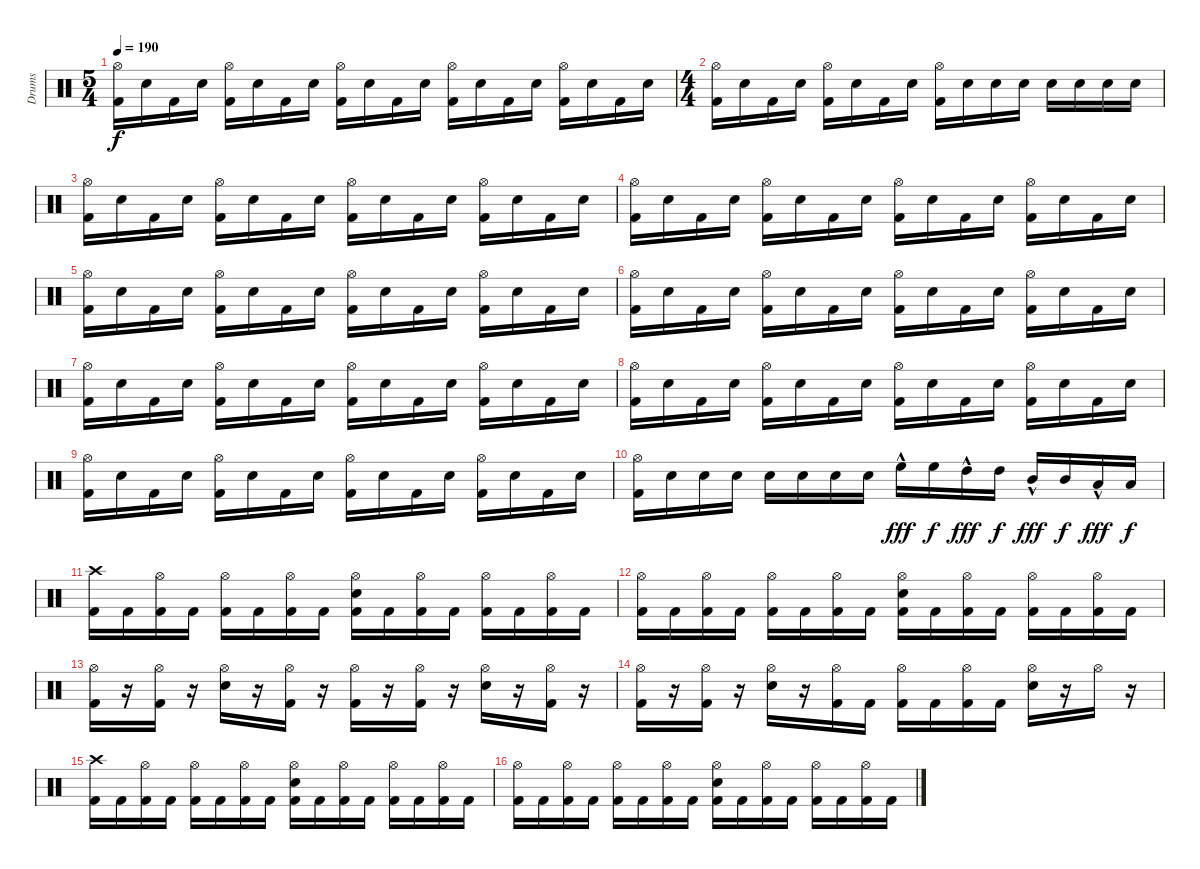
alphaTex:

\track ("Drums" "Drums") {instrument percussion}
\staff {score}
\articulation defaults
\ts (5 4)
\tempo 190
\clef neutral
\ks aminor
("Kick (hit) 2" "Hi-Hat (open)").16{dy f} "Electric Snare (hit)".16 "Kick (hit) 2".16 "Electric Snare (hit)".16 ("Kick (hit) 2" "Hi-Hat (open)").16 "Electric Snare (hit)".16 "Kick (hit) 2".16 "Electric Snare (hit)".16 ("Kick (hit) 2" "Hi-Hat (open)").16 "Electric Snare (hit)".16 "Kick (hit) 2".16 "Electric Snare (hit)".16 ("Kick (hit) 2" "Hi-Hat (open)").16 "Electric Snare (hit)".16 "Kick (hit) 2".16 "Electric Snare (hit)".16 ("Kick (hit) 2" "Hi-Hat (open)").16 "Electric Snare (hit)".16 "Kick (hit) 2".16 "Electric Snare (hit)".16 |
\ts (4 4)
("Kick (hit) 2" "Hi-Hat (open)").16 "Electric Snare (hit)".16 "Kick (hit) 2".16 "Electric Snare (hit)".16 ("Kick (hit) 2" "Hi-Hat (open)").16 "Electric Snare (hit)".16 "Kick (hit) 2".16 "Electric Snare (hit)".16 ("Kick (hit) 2" "Hi-Hat (open)").16 "Electric Snare (hit)".16 "Electric Snare (hit)".16 "Electric Snare (hit)".16 "Electric Snare (hit)".16 "Electric Snare (hit)".16 "Electric Snare (hit)".16 "Electric Snare (hit)".16 |
("Kick (hit) 2" "Hi-Hat (open)").16 "Electric Snare (hit)".16 "Kick (hit) 2".16 "Electric Snare (hit)".16 ("Kick (hit) 2" "Hi-Hat (open)").16 "Electric Snare (hit)".16 "Kick (hit) 2".16 "Electric Snare (hit)".16 ("Kick (hit) 2" "Hi-Hat (open)").16 "Electric Snare (hit)".16 "Kick (hit) 2".16 "Electric Snare (hit)".16 ("Kick (hit) 2" "Hi-Hat (open)").16 "Electric Snare (hit)".16 "Kick (hit) 2".16 "Electric Snare (hit)".16 |
("Kick (hit) 2" "Hi-Hat (open)").16 "Electric Snare (hit)".16 "Kick (hit) 2".16 "Electric Snare (hit)".16 ("Kick (hit) 2" "Hi-Hat (open)").16 "Electric Snare (hit)".16 "Kick (hit) 2".16 "Electric Snare (hit)".16 ("Kick (hit) 2" "Hi-Hat (open)").16 "Electric Snare (hit)".16 "Kick (hit) 2".16 "Electric Snare (hit)".16 ("Kick (hit) 2" "Hi-Hat (open)").16 "Electric Snare (hit)".16 "Kick (hit) 2".16 "Electric Snare (hit)".16 |
("Kick (hit) 2" "Hi-Hat (open)").16 "Electric Snare (hit)".16 "Kick (hit) 2".16 "Electric Snare (hit)".16 ("Kick (hit) 2" "Hi-Hat (open)").16 "Electric Snare (hit)".16 "Kick (hit) 2".16 "Electric Snare (hit)".16 ("Kick (hit) 2" "Hi-Hat (open)").16 "Electric Snare (hit)".16 "Kick (hit) 2".16 "Electric Snare (hit)".16 ("Kick (hit) 2" "Hi-Hat (open)").16 "Electric Snare (hit)".16 "Kick (hit) 2".16 "Electric Snare (hit)".16 |
("Kick (hit) 2" "Hi-Hat (open)").16 "Electric Snare (hit)".16 "Kick (hit) 2".16 "Electric Snare (hit)".16 ("Kick (hit) 2" "Hi-Hat (open)").16 "Electric Snare (hit)".16 "Kick (hit) 2".16 "Electric Snare (hit)".16 ("Kick (hit) 2" "Hi-Hat (open)").16 "Electric Snare (hit)".16 "Kick (hit) 2".16 "Electric Snare (hit)".16 ("Kick (hit) 2" "Hi-Hat (open)").16 "Electric Snare (hit)".16 "Kick (hit) 2".16 "Electric Snare (hit)".16 |
("Kick (hit) 2" "Hi-Hat (open)").16 "Electric Snare (hit)".16 "Kick (hit) 2".16 "Electric Snare (hit)".16 ("Kick (hit) 2" "Hi-Hat (open)").16 "Electric Snare (hit)".16 "Kick (hit) 2".16 "Electric Snare (hit)".16 ("Kick (hit) 2" "Hi-Hat (open)").16 "Electric Snare (hit)".16 "Kick (hit) 2".16 "Electric Snare (hit)".16 ("Kick (hit) 2" "Hi-Hat (open)").16 "Electric Snare (hit)".16 "Kick (hit) 2".16 "Electric Snare (hit)".16 |
("Kick (hit) 2" "Hi-Hat (open)").16 "Electric Snare (hit)".16 "Kick (hit) 2".16 "Electric Snare (hit)".16 ("Kick (hit) 2" "Hi-Hat (open)").16 "Electric Snare (hit)".16 "Kick (hit) 2".16 "Electric Snare (hit)".16 ("Kick (hit) 2" "Hi-Hat (open)").16 "Electric Snare (hit)".16 "Kick (hit) 2".16 "Electric Snare (hit)".16 ("Kick (hit) 2" "Hi-Hat (open)").16 "Electric Snare (hit)".16 "Kick (hit) 2".16 "Electric Snare (hit)".16 |
("Kick (hit) 2" "Hi-Hat (open)").16 "Electric Snare (hit)".16 "Kick (hit) 2".16 "Electric Snare (hit)".16 ("Kick (hit) 2" "Hi-Hat (open)").16 "Electric Snare (hit)".16 "Kick (hit) 2".16 "Electric Snare (hit)".16 ("Kick (hit) 2" "Hi-Hat (open)").16 "Electric Snare (hit)".16 "Kick (hit) 2".16 "Electric Snare (hit)".16 ("Kick (hit) 2" "Hi-Hat (open)").16 "Electric Snare (hit)".16 "Kick (hit) 2".16 "Electric Snare (hit)".16 |
("Kick (hit) 2" "Hi-Hat (open)").16 "Electric Snare (hit)".16 "Electric Snare (hit)".16 "Electric Snare (hit)".16 "Electric Snare (hit)".16 "Electric Snare (hit)".16 "Electric Snare (hit)".16 "Electric Snare (hit)".16 "High Floor Tom (hit)"{hac}.16{dy fff} "High Floor Tom (hit)".16{dy f} "High Tom (hit)"{hac}.16{dy fff} "High Tom (hit)".16{dy f} "Mid Tom (hit)"{hac}.16{dy fff} "Mid Tom (hit)".16{dy f} "Low Tom (hit)"{hac}.16{dy fff} "Low Tom (hit)".16{dy f} |
("Kick (hit) 2" "Crash high (hit)").16 "Kick (hit) 2".16 ("Kick (hit) 2" "Hi-Hat (open)").16 "Kick (hit) 2".16 ("Kick (hit) 2" "Hi-Hat (open)").16 "Kick (hit) 2".16 ("Kick (hit) 2" "Hi-Hat (open)").16 "Kick (hit) 2".16 ("Kick (hit) 2" "Electric Snare (hit)" "Hi-Hat (open)").16 "Kick (hit) 2".16 ("Kick (hit) 2" "Hi-Hat (open)").16 "Kick (hit) 2".16 ("Kick (hit) 2" "Hi-Hat (open)").16 "Kick (hit) 2".16 ("Kick (hit) 2" "Hi-Hat (open)").16 "Kick (hit) 2".16 |
("Kick (hit) 2" "Hi-Hat (open)").16 "Kick (hit) 2".16 ("Kick (hit) 2" "Hi-Hat (open)").16 "Kick (hit) 2".16 ("Kick (hit) 2" "Hi-Hat (open)").16 "Kick (hit) 2".16 ("Kick (hit) 2" "Hi-Hat (open)").16 "Kick (hit) 2".16 ("Kick (hit) 2" "Electric Snare (hit)" "Hi-Hat (open)").16 "Kick (hit) 2".16 ("Kick (hit) 2" "Hi-Hat (open)").16 "Kick (hit) 2".16 ("Kick (hit) 2" "Hi-Hat (open)").16 "Kick (hit) 2".16 ("Kick (hit) 2" "Hi-Hat (open)").16 "Kick (hit) 2".16 |
("Kick (hit) 2" "Hi-Hat (open)").16 r.16 ("Kick (hit) 2" "Hi-Hat (open)").16 r.16 ("Electric Snare (hit)" "Hi-Hat (open)").16 r.16 ("Kick (hit) 2" "Hi-Hat (open)").16 r.16 ("Kick (hit) 2" "Hi-Hat (open)").16 r.16 ("Kick (hit) 2" "Hi-Hat (open)").16 r.16 ("Electric Snare (hit)" "Hi-Hat (open)").16 r.16 ("Kick (hit) 2" "Hi-Hat (open)").16 r.16 |
("Kick (hit) 2" "Hi-Hat (open)").16 r.16 ("Kick (hit) 2" "Hi-Hat (open)").16 r.16 ("Electric Snare (hit)" "Hi-Hat (open)").16 r.16 ("Kick (hit) 2" "Hi-Hat (open)").16 "Kick (hit) 2".16 ("Kick (hit) 2" "Hi-Hat (open)").16 "Kick (hit) 2".16 ("Kick (hit) 2" "Hi-Hat (open)").16 "Kick (hit) 2".16 ("Electric Snare (hit)" "Hi-Hat (open)").16 r.16 "Hi-Hat (open)".16 r.16 |
("Kick (hit) 2" "Crash high (hit)").16 "Kick (hit) 2".16 ("Kick (hit) 2" "Hi-Hat (open)").16 "Kick (hit) 2".16 ("Kick (hit) 2" "Hi-Hat (open)").16 "Kick (hit) 2".16 ("Kick (hit) 2" "Hi-Hat (open)").16 "Kick (hit) 2".16 ("Kick (hit) 2" "Electric Snare (hit)" "Hi-Hat (open)").16 "Kick (hit) 2".16 ("Kick (hit) 2" "Hi-Hat (open)").16 "Kick (hit) 2".16 ("Kick (hit) 2" "Hi-Hat (open)").16 "Kick (hit) 2".16 ("Kick (hit) 2" "Hi-Hat (open)").16 "Kick (hit) 2".16 |
("Kick (hit) 2" "Hi-Hat (open)").16 "Kick (hit) 2".16 ("Kick (hit) 2" "Hi-Hat (open)").16 "Kick (hit) 2".16 ("Kick (hit) 2" "Hi-Hat (open)").16 "Kick (hit) 2".16 ("Kick (hit) 2" "Hi-Hat (open)").16 "Kick (hit) 2".16 ("Kick (hit) 2" "Electric Snare (hit)" "Hi-Hat (open)").16 "Kick (hit) 2".16 ("Kick (hit) 2" "Hi-Hat (open)").16 "Kick (hit) 2".16 ("Kick (hit) 2" "Hi-Hat (open)").16 "Kick (hit) 2".16 ("Kick (hit) 2" "Hi-Hat (open)").16 "Kick (hit) 2".16
